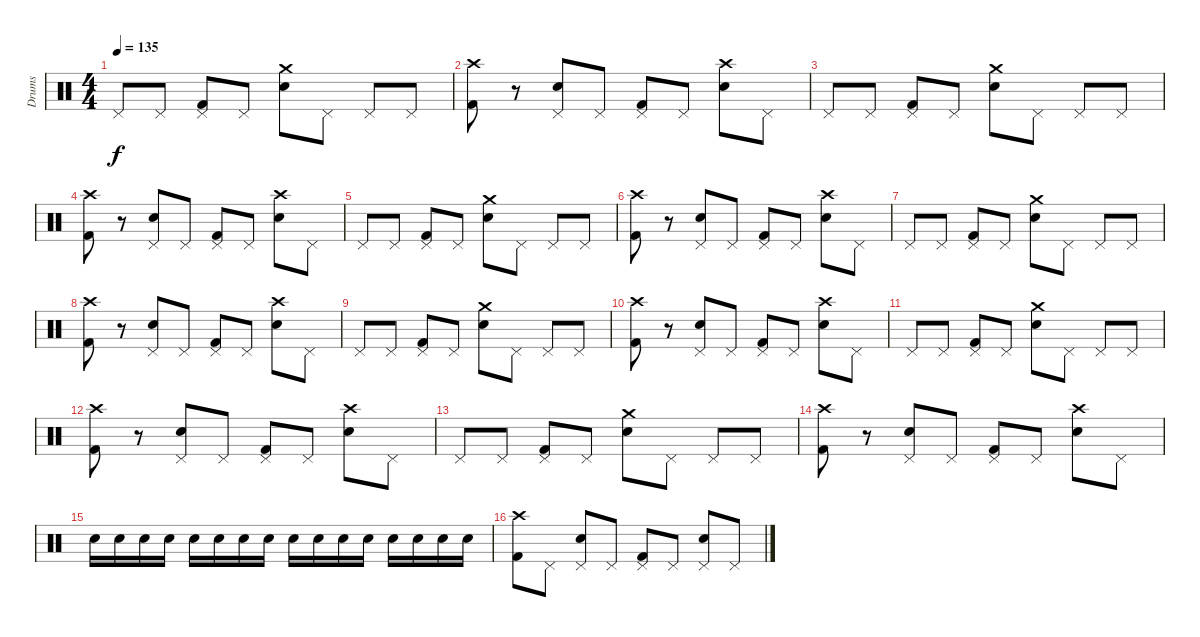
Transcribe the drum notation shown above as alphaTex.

\track ("Drums" "Drums") {instrument percussion}
\staff {score}
\articulation defaults
\ts (4 4)
\tempo 135
\clef neutral
\ks c "Pedal Hi-Hat (hit)".8{dy f} "Pedal Hi-Hat (hit)".8
("Pedal Hi-Hat (hit)" "Kick (hit) 2").8 "Pedal Hi-Hat (hit)".8 ("Crash medium (hit)" "Snare (hit) 2").8 "Pedal Hi-Hat (hit)".8 "Pedal Hi-Hat (hit)".8 "Pedal Hi-Hat (hit)".8 |
("Crash high (hit)" "Kick (hit) 2").8 r.8 ("Pedal Hi-Hat (hit)" "Snare (hit) 2").8 "Pedal Hi-Hat (hit)".8 ("Pedal Hi-Hat (hit)" "Kick (hit) 2").8 "Pedal Hi-Hat (hit)".8 ("Crash high (hit)" "Snare (hit) 2").8 "Pedal Hi-Hat (hit)".8 |
"Pedal Hi-Hat (hit)".8 "Pedal Hi-Hat (hit)".8 ("Pedal Hi-Hat (hit)" "Kick (hit) 2").8 "Pedal Hi-Hat (hit)".8 ("Crash medium (hit)" "Snare (hit) 2").8 "Pedal Hi-Hat (hit)".8 "Pedal Hi-Hat (hit)".8 "Pedal Hi-Hat (hit)".8 |
("Crash high (hit)" "Kick (hit) 2").8 r.8 ("Pedal Hi-Hat (hit)" "Snare (hit) 2").8 "Pedal Hi-Hat (hit)".8 ("Pedal Hi-Hat (hit)" "Kick (hit) 2").8 "Pedal Hi-Hat (hit)".8 ("Crash high (hit)" "Snare (hit) 2").8 "Pedal Hi-Hat (hit)".8 |
"Pedal Hi-Hat (hit)".8 "Pedal Hi-Hat (hit)".8 ("Pedal Hi-Hat (hit)" "Kick (hit) 2").8 "Pedal Hi-Hat (hit)".8 ("Crash medium (hit)" "Snare (hit) 2").8 "Pedal Hi-Hat (hit)".8 "Pedal Hi-Hat (hit)".8 "Pedal Hi-Hat (hit)".8 |
("Crash high (hit)" "Kick (hit) 2").8 r.8 ("Pedal Hi-Hat (hit)" "Snare (hit) 2").8 "Pedal Hi-Hat (hit)".8 ("Pedal Hi-Hat (hit)" "Kick (hit) 2").8 "Pedal Hi-Hat (hit)".8 ("Crash high (hit)" "Snare (hit) 2").8 "Pedal Hi-Hat (hit)".8 |
"Pedal Hi-Hat (hit)".8 "Pedal Hi-Hat (hit)".8 ("Pedal Hi-Hat (hit)" "Kick (hit) 2").8 "Pedal Hi-Hat (hit)".8 ("Crash medium (hit)" "Snare (hit) 2").8 "Pedal Hi-Hat (hit)".8 "Pedal Hi-Hat (hit)".8 "Pedal Hi-Hat (hit)".8 |
("Crash high (hit)" "Kick (hit) 2").8 r.8 ("Pedal Hi-Hat (hit)" "Snare (hit) 2").8 "Pedal Hi-Hat (hit)".8 ("Pedal Hi-Hat (hit)" "Kick (hit) 2").8 "Pedal Hi-Hat (hit)".8 ("Crash high (hit)" "Snare (hit) 2").8 "Pedal Hi-Hat (hit)".8 |
"Pedal Hi-Hat (hit)".8 "Pedal Hi-Hat (hit)".8 ("Pedal Hi-Hat (hit)" "Kick (hit) 2").8 "Pedal Hi-Hat (hit)".8 ("Crash medium (hit)" "Snare (hit) 2").8 "Pedal Hi-Hat (hit)".8 "Pedal Hi-Hat (hit)".8 "Pedal Hi-Hat (hit)".8 |
("Crash high (hit)" "Kick (hit) 2").8 r.8 ("Pedal Hi-Hat (hit)" "Snare (hit) 2").8 "Pedal Hi-Hat (hit)".8 ("Pedal Hi-Hat (hit)" "Kick (hit) 2").8 "Pedal Hi-Hat (hit)".8 ("Crash high (hit)" "Snare (hit) 2").8 "Pedal Hi-Hat (hit)".8 |
"Pedal Hi-Hat (hit)".8 "Pedal Hi-Hat (hit)".8 ("Pedal Hi-Hat (hit)" "Kick (hit) 2").8 "Pedal Hi-Hat (hit)".8 ("Crash medium (hit)" "Snare (hit) 2").8 "Pedal Hi-Hat (hit)".8 "Pedal Hi-Hat (hit)".8 "Pedal Hi-Hat (hit)".8 |
("Crash high (hit)" "Kick (hit) 2").8 r.8 ("Pedal Hi-Hat (hit)" "Snare (hit) 2").8 "Pedal Hi-Hat (hit)".8 ("Pedal Hi-Hat (hit)" "Kick (hit) 2").8 "Pedal Hi-Hat (hit)".8 ("Crash high (hit)" "Snare (hit) 2").8 "Pedal Hi-Hat (hit)".8 |
"Pedal Hi-Hat (hit)".8 "Pedal Hi-Hat (hit)".8 ("Pedal Hi-Hat (hit)" "Kick (hit) 2").8 "Pedal Hi-Hat (hit)".8 ("Crash medium (hit)" "Snare (hit) 2").8 "Pedal Hi-Hat (hit)".8 "Pedal Hi-Hat (hit)".8 "Pedal Hi-Hat (hit)".8 |
("Crash high (hit)" "Kick (hit) 2").8 r.8 ("Pedal Hi-Hat (hit)" "Snare (hit) 2").8 "Pedal Hi-Hat (hit)".8 ("Pedal Hi-Hat (hit)" "Kick (hit) 2").8 "Pedal Hi-Hat (hit)".8 ("Crash high (hit)" "Snare (hit) 2").8 "Pedal Hi-Hat (hit)".8 |
"Snare (hit) 2".16 "Snare (hit) 2".16 "Snare (hit) 2".16 "Snare (hit) 2".16 "Snare (hit) 2".16 "Snare (hit) 2".16 "Snare (hit) 2".16 "Snare (hit) 2".16 "Snare (hit) 2".16 "Snare (hit) 2".16 "Snare (hit) 2".16 "Snare (hit) 2".16 "Snare (hit) 2".16 "Snare (hit) 2".16 "Snare (hit) 2".16 "Snare (hit) 2".16 |
("Crash high (hit)" "Kick (hit) 2").8 "Pedal Hi-Hat (hit)".8 ("Pedal Hi-Hat (hit)" "Snare (hit) 2").8 "Pedal Hi-Hat (hit)".8 ("Pedal Hi-Hat (hit)" "Kick (hit) 2").8 "Pedal Hi-Hat (hit)".8 ("Pedal Hi-Hat (hit)" "Snare (hit) 2").8 "Pedal Hi-Hat (hit)".8
